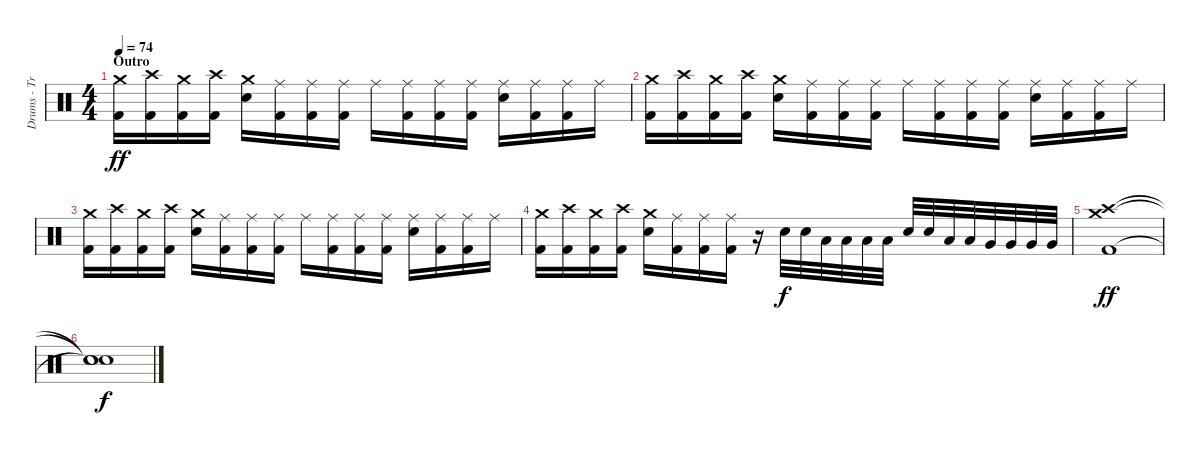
\track ("Drums - Travis" "Drums - Tr") {instrument percussion}
\staff {score}
\articulation defaults
\ts (4 4)
\section ("" "Outro")
\tempo 74
\clef neutral
\ks c
("Crash medium (hit)" "Kick (hit) 2").16{dy ff} ("Crash high (hit)" "Kick (hit) 2").16 ("Crash medium (hit)" "Kick (hit) 2").16 ("Crash high (hit)" "Kick (hit) 2").16 ("Crash medium (hit)" "Electric Snare (hit)").16 ("Ride (middle)" "Kick (hit) 2").16 ("Ride (middle)" "Kick (hit) 2").16 ("Ride (middle)" "Kick (hit) 2").16 "Ride (middle)".16 ("Ride (middle)" "Kick (hit) 2").16 ("Ride (middle)" "Kick (hit) 2").16 ("Ride (middle)" "Kick (hit) 2").16 ("Ride (middle)" "Electric Snare (hit)").16 ("Ride (middle)" "Kick (hit) 2").16 ("Ride (middle)" "Kick (hit) 2").16 "Ride (middle)".16 |
("Crash medium (hit)" "Kick (hit) 2").16 ("Crash high (hit)" "Kick (hit) 2").16 ("Crash medium (hit)" "Kick (hit) 2").16 ("Crash high (hit)" "Kick (hit) 2").16 ("Crash medium (hit)" "Electric Snare (hit)").16 ("Ride (middle)" "Kick (hit) 2").16 ("Ride (middle)" "Kick (hit) 2").16 ("Ride (middle)" "Kick (hit) 2").16 "Ride (middle)".16 ("Ride (middle)" "Kick (hit) 2").16 ("Ride (middle)" "Kick (hit) 2").16 ("Ride (middle)" "Kick (hit) 2").16 ("Ride (middle)" "Electric Snare (hit)").16 ("Ride (middle)" "Kick (hit) 2").16 ("Ride (middle)" "Kick (hit) 2").16 "Ride (middle)".16 |
("Crash medium (hit)" "Kick (hit) 2").16 ("Crash high (hit)" "Kick (hit) 2").16 ("Crash medium (hit)" "Kick (hit) 2").16 ("Crash high (hit)" "Kick (hit) 2").16 ("Crash medium (hit)" "Electric Snare (hit)").16 ("Ride (middle)" "Kick (hit) 2").16 ("Ride (middle)" "Kick (hit) 2").16 ("Ride (middle)" "Kick (hit) 2").16 "Ride (middle)".16 ("Ride (middle)" "Kick (hit) 2").16 ("Ride (middle)" "Kick (hit) 2").16 ("Ride (middle)" "Kick (hit) 2").16 ("Ride (middle)" "Electric Snare (hit)").16 ("Ride (middle)" "Kick (hit) 2").16 ("Ride (middle)" "Kick (hit) 2").16 "Ride (middle)".16 |
("Crash medium (hit)" "Kick (hit) 2").16 ("Crash high (hit)" "Kick (hit) 2").16 ("Crash medium (hit)" "Kick (hit) 2").16 ("Crash high (hit)" "Kick (hit) 2").16 ("Crash medium (hit)" "Electric Snare (hit)").16 ("Ride (middle)" "Kick (hit) 2").16 ("Ride (middle)" "Kick (hit) 2").16 ("Ride (middle)" "Kick (hit) 2").16 r.16 "Electric Snare (hit)".32{dy f} "Electric Snare (hit)".32 "Low Tom (hit)".32 "Low Tom (hit)".32 "Low Tom (hit)".32 "Low Tom (hit)".32 "Electric Snare (hit)".32 "Electric Snare (hit)".32 "Low Tom (hit)".32 "Low Tom (hit)".32 "Very Low Tom (hit)".32 "Very Low Tom (hit)".32 "Very Low Tom (hit)".32 "Very Low Tom (hit)".32 |
("Crash medium (hit)" "Crash high (hit)" "Kick (hit) 2").1{dy ff} |
("Snare (hit)"{t} "Snare (hit)"{t} "Snare (hit)"{t}).1{dy f}
